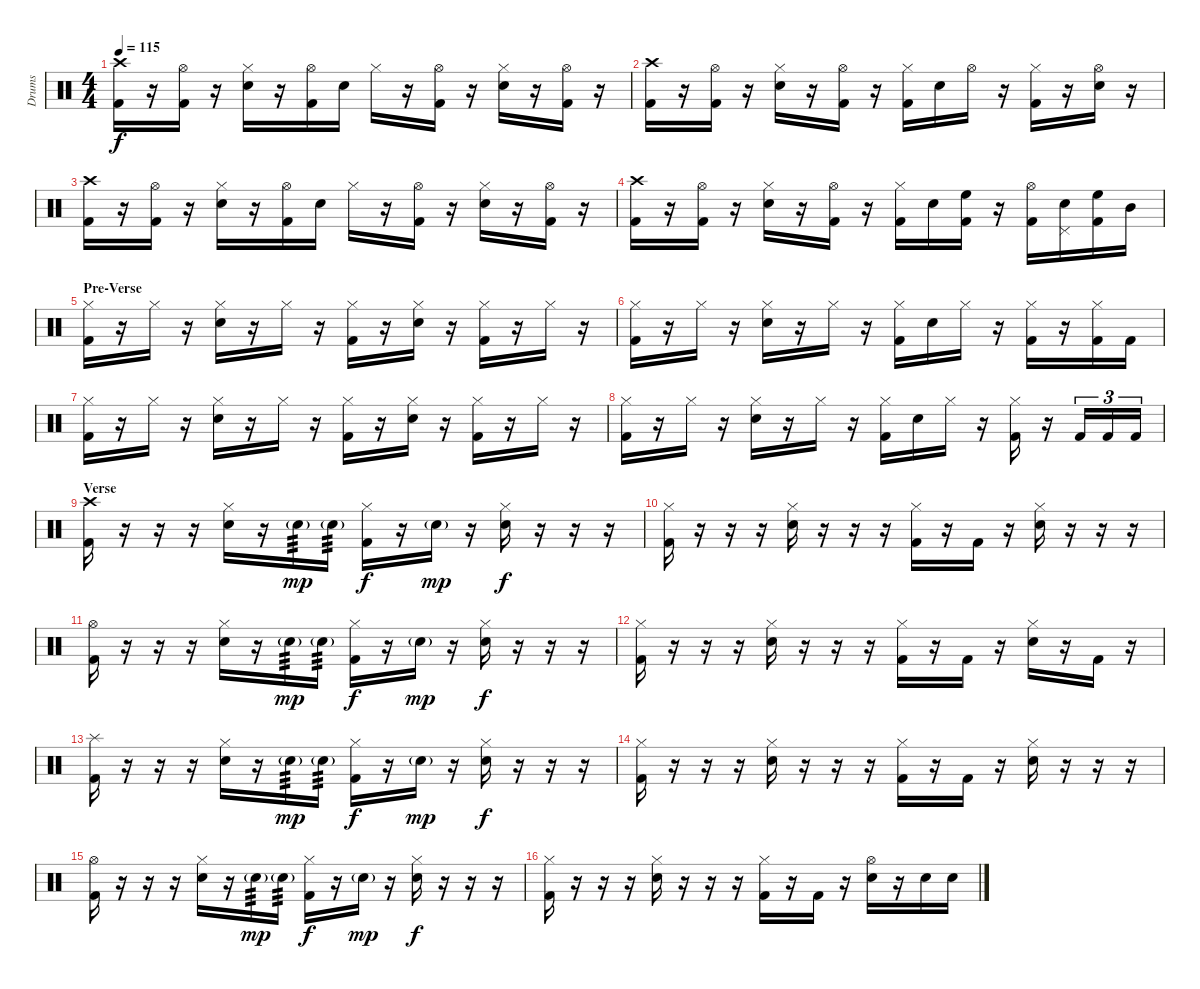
\track ("Drums" "Drums") {instrument percussion}
\staff {score}
\articulation defaults
\ts (4 4)
\tempo 115
\clef neutral
\ks c
("Crash high (hit)" "Kick (hit) 2").16{dy f} r.16 ("Hi-Hat (open)" "Kick (hit) 2").16 r.16 ("Hi-Hat (closed)" "Electric Snare (hit)").16 r.16 ("Hi-Hat (open)" "Kick (hit) 2").16 "Electric Snare (hit)".16 "Hi-Hat (closed)".16 r.16 ("Hi-Hat (open)" "Kick (hit) 2").16 r.16 ("Hi-Hat (closed)" "Electric Snare (hit)").16 r.16 ("Hi-Hat (open)" "Kick (hit) 2").16 r.16 |
("Crash high (hit)" "Kick (hit) 2").16 r.16 ("Hi-Hat (open)" "Kick (hit) 2").16 r.16 ("Hi-Hat (closed)" "Electric Snare (hit)").16 r.16 ("Hi-Hat (open)" "Kick (hit) 2").16 r.16 ("Hi-Hat (closed)" "Kick (hit) 2").16 "Electric Snare (hit)".16 "Hi-Hat (open)".16 r.16 ("Hi-Hat (closed)" "Kick (hit) 2").16 r.16 ("Hi-Hat (open)" "Electric Snare (hit)").16 r.16 |
("Crash high (hit)" "Kick (hit) 2").16 r.16 ("Hi-Hat (open)" "Kick (hit) 2").16 r.16 ("Hi-Hat (closed)" "Electric Snare (hit)").16 r.16 ("Hi-Hat (open)" "Kick (hit) 2").16 "Electric Snare (hit)".16 "Hi-Hat (closed)".16 r.16 ("Hi-Hat (open)" "Kick (hit) 2").16 r.16 ("Hi-Hat (closed)" "Electric Snare (hit)").16 r.16 ("Hi-Hat (open)" "Kick (hit) 2").16 r.16 |
("Crash high (hit)" "Kick (hit) 2").16 r.16 ("Hi-Hat (open)" "Kick (hit) 2").16 r.16 ("Hi-Hat (closed)" "Electric Snare (hit)").16 r.16 ("Hi-Hat (open)" "Kick (hit) 2").16 r.16 ("Hi-Hat (closed)" "Kick (hit) 2").16 "Electric Snare (hit)".16 ("High Floor Tom (hit)" "Kick (hit) 2").16 r.16 ("Hi-Hat (open)" "Kick (hit) 2").16 ("Pedal Hi-Hat (hit)" "Electric Snare (hit)").16 ("High Floor Tom (hit)" "Kick (hit) 2").16 "Mid Tom (hit)".16 |
\section ("" "Pre-Verse")
("Hi-Hat (closed)" "Kick (hit) 2").16 r.16 "Hi-Hat (closed)".16 r.16 ("Hi-Hat (closed)" "Electric Snare (hit)").16 r.16 "Hi-Hat (closed)".16 r.16 ("Hi-Hat (closed)" "Kick (hit) 2").16 r.16 ("Hi-Hat (closed)" "Electric Snare (hit)").16 r.16 ("Hi-Hat (closed)" "Kick (hit) 2").16 r.16 "Hi-Hat (closed)".16 r.16 |
("Hi-Hat (closed)" "Kick (hit) 2").16 r.16 "Hi-Hat (closed)".16 r.16 ("Hi-Hat (closed)" "Electric Snare (hit)").16 r.16 "Hi-Hat (closed)".16 r.16 ("Hi-Hat (closed)" "Kick (hit) 2").16 "Electric Snare (hit)".16 "Hi-Hat (closed)".16 r.16 ("Hi-Hat (closed)" "Kick (hit) 2").16 r.16 ("Hi-Hat (closed)" "Kick (hit) 2").16 "Kick (hit) 2".16 |
("Hi-Hat (closed)" "Kick (hit) 2").16 r.16 "Hi-Hat (closed)".16 r.16 ("Hi-Hat (closed)" "Electric Snare (hit)").16 r.16 "Hi-Hat (closed)".16 r.16 ("Hi-Hat (closed)" "Kick (hit) 2").16 r.16 ("Hi-Hat (closed)" "Electric Snare (hit)").16 r.16 ("Hi-Hat (closed)" "Kick (hit) 2").16 r.16 "Hi-Hat (closed)".16 r.16 |
("Hi-Hat (closed)" "Kick (hit) 2").16 r.16 "Hi-Hat (closed)".16 r.16 ("Hi-Hat (closed)" "Electric Snare (hit)").16 r.16 "Hi-Hat (closed)".16 r.16 ("Hi-Hat (closed)" "Kick (hit) 2").16 "Electric Snare (hit)".16 "Hi-Hat (closed)".16 r.16 ("Hi-Hat (closed)" "Kick (hit) 2").16 r.16 "Kick (hit) 2".16{tu (3 2)} "Kick (hit) 2".16{tu (3 2)} "Kick (hit) 2".16{tu (3 2)} |
\section ("" "Verse")
("Crash high (hit)" "Kick (hit) 2").16 r.16 r.16 r.16 ("Hi-Hat (closed)" "Electric Snare (hit)").16 r.16 "Electric Snare (hit)"{g}.16{tp 3 dy mp} "Electric Snare (hit)"{g}.16{tp 3} ("Hi-Hat (closed)" "Kick (hit) 2").16{dy f} r.16 "Electric Snare (hit)"{g}.16{dy mp} r.16 ("Hi-Hat (closed)" "Electric Snare (hit)").16{dy f} r.16 r.16 r.16 |
("Hi-Hat (closed)" "Kick (hit) 2").16 r.16 r.16 r.16 ("Hi-Hat (closed)" "Electric Snare (hit)").16 r.16 r.16 r.16 ("Hi-Hat (closed)" "Kick (hit) 2").16 r.16 "Kick (hit) 2".16 r.16 ("Hi-Hat (closed)" "Electric Snare (hit)").16 r.16 r.16 r.16 |
("Hi-Hat (open)" "Kick (hit) 2").16 r.16 r.16 r.16 ("Hi-Hat (closed)" "Electric Snare (hit)").16 r.16 "Electric Snare (hit)"{g}.16{tp 3 dy mp} "Electric Snare (hit)"{g}.16{tp 3} ("Hi-Hat (closed)" "Kick (hit) 2").16{dy f} r.16 "Electric Snare (hit)"{g}.16{dy mp} r.16 ("Hi-Hat (closed)" "Electric Snare (hit)").16{dy f} r.16 r.16 r.16 |
("Hi-Hat (closed)" "Kick (hit) 2").16 r.16 r.16 r.16 ("Hi-Hat (closed)" "Electric Snare (hit)").16 r.16 r.16 r.16 ("Hi-Hat (closed)" "Kick (hit) 2").16 r.16 "Kick (hit) 2".16 r.16 ("Hi-Hat (closed)" "Electric Snare (hit)").16 r.16 "Kick (hit) 2".16 r.16 |
("Splash (hit)" "Kick (hit) 2").16 r.16 r.16 r.16 ("Hi-Hat (closed)" "Electric Snare (hit)").16 r.16 "Electric Snare (hit)"{g}.16{tp 3 dy mp} "Electric Snare (hit)"{g}.16{tp 3} ("Hi-Hat (closed)" "Kick (hit) 2").16{dy f} r.16 "Electric Snare (hit)"{g}.16{dy mp} r.16 ("Hi-Hat (closed)" "Electric Snare (hit)").16{dy f} r.16 r.16 r.16 |
("Hi-Hat (closed)" "Kick (hit) 2").16 r.16 r.16 r.16 ("Hi-Hat (closed)" "Electric Snare (hit)").16 r.16 r.16 r.16 ("Hi-Hat (closed)" "Kick (hit) 2").16 r.16 "Kick (hit) 2".16 r.16 ("Hi-Hat (closed)" "Electric Snare (hit)").16 r.16 r.16 r.16 |
("Hi-Hat (open)" "Kick (hit) 2").16 r.16 r.16 r.16 ("Hi-Hat (closed)" "Electric Snare (hit)").16 r.16 "Electric Snare (hit)"{g}.16{tp 3 dy mp} "Electric Snare (hit)"{g}.16{tp 3} ("Hi-Hat (closed)" "Kick (hit) 2").16{dy f} r.16 "Electric Snare (hit)"{g}.16{dy mp} r.16 ("Hi-Hat (closed)" "Electric Snare (hit)").16{dy f} r.16 r.16 r.16 |
("Hi-Hat (closed)" "Kick (hit) 2").16 r.16 r.16 r.16 ("Hi-Hat (closed)" "Electric Snare (hit)").16 r.16 r.16 r.16 ("Hi-Hat (closed)" "Kick (hit) 2").16 r.16 "Kick (hit) 2".16 r.16 ("Hi-Hat (open)" "Electric Snare (hit)").16 r.16 "Electric Snare (hit)".16 "Electric Snare (hit)".16
